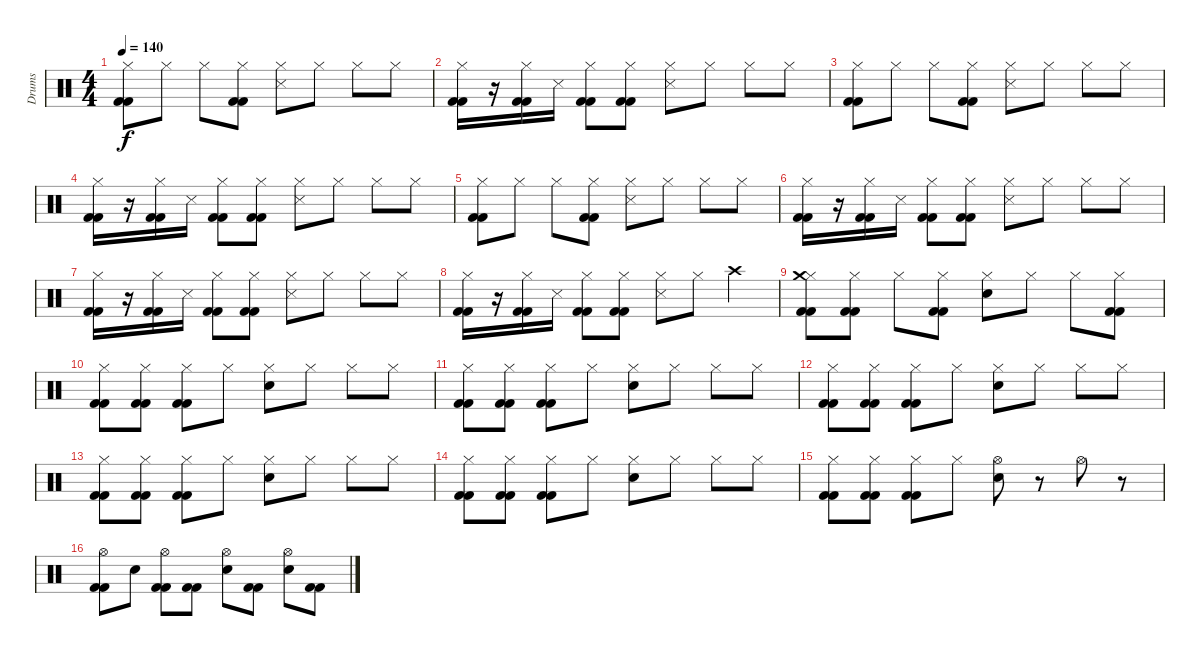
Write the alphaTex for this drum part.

\track ("Drums" "Drums") {instrument percussion}
\staff {score}
\articulation defaults
\ts (4 4)
\tempo 140
\clef neutral
\ks c
("Hi-Hat (closed)" "Kick (hit) 2" "Kick (hit) 2").8{dy f} "Hi-Hat (closed)".8 "Hi-Hat (closed)".8 ("Hi-Hat (closed)" "Kick (hit) 2" "Kick (hit) 2").8 ("Hi-Hat (closed)" "Snare (side stick) 3").8 "Hi-Hat (closed)".8 "Hi-Hat (closed)".8 "Hi-Hat (closed)".8 |
("Kick (hit) 2" "Hi-Hat (closed)" "Kick (hit) 2").16 r.16 ("Kick (hit) 2" "Kick (hit) 2" "Hi-Hat (closed)").16 "Snare (side stick) 3".16 ("Kick (hit) 2" "Kick (hit) 2" "Hi-Hat (closed)").8 ("Kick (hit) 2" "Kick (hit) 2" "Hi-Hat (closed)").8 ("Snare (side stick) 3" "Hi-Hat (closed)").8 "Hi-Hat (closed)".8 "Hi-Hat (closed)".8 "Hi-Hat (closed)".8 |
("Hi-Hat (closed)" "Kick (hit) 2" "Kick (hit) 2").8 "Hi-Hat (closed)".8 "Hi-Hat (closed)".8 ("Hi-Hat (closed)" "Kick (hit) 2" "Kick (hit) 2").8 ("Hi-Hat (closed)" "Snare (side stick) 3").8 "Hi-Hat (closed)".8 "Hi-Hat (closed)".8 "Hi-Hat (closed)".8 |
("Kick (hit) 2" "Hi-Hat (closed)" "Kick (hit) 2").16 r.16 ("Kick (hit) 2" "Kick (hit) 2" "Hi-Hat (closed)").16 "Snare (side stick) 3".16 ("Kick (hit) 2" "Kick (hit) 2" "Hi-Hat (closed)").8 ("Kick (hit) 2" "Kick (hit) 2" "Hi-Hat (closed)").8 ("Snare (side stick) 3" "Hi-Hat (closed)").8 "Hi-Hat (closed)".8 "Hi-Hat (closed)".8 "Hi-Hat (closed)".8 |
("Hi-Hat (closed)" "Kick (hit) 2" "Kick (hit) 2").8 "Hi-Hat (closed)".8 "Hi-Hat (closed)".8 ("Hi-Hat (closed)" "Kick (hit) 2" "Kick (hit) 2").8 ("Hi-Hat (closed)" "Snare (side stick) 3").8 "Hi-Hat (closed)".8 "Hi-Hat (closed)".8 "Hi-Hat (closed)".8 |
("Kick (hit) 2" "Hi-Hat (closed)" "Kick (hit) 2").16 r.16 ("Kick (hit) 2" "Kick (hit) 2" "Hi-Hat (closed)").16 "Snare (side stick) 3".16 ("Kick (hit) 2" "Kick (hit) 2" "Hi-Hat (closed)").8 ("Kick (hit) 2" "Kick (hit) 2" "Hi-Hat (closed)").8 ("Snare (side stick) 3" "Hi-Hat (closed)").8 "Hi-Hat (closed)".8 "Hi-Hat (closed)".8 "Hi-Hat (closed)".8 |
("Kick (hit) 2" "Hi-Hat (closed)" "Kick (hit) 2").16 r.16 ("Kick (hit) 2" "Kick (hit) 2" "Hi-Hat (closed)").16 "Snare (side stick) 3".16 ("Kick (hit) 2" "Kick (hit) 2" "Hi-Hat (closed)").8 ("Kick (hit) 2" "Kick (hit) 2" "Hi-Hat (closed)").8 ("Snare (side stick) 3" "Hi-Hat (closed)").8 "Hi-Hat (closed)".8 "Hi-Hat (closed)".8 "Hi-Hat (closed)".8 |
("Kick (hit) 2" "Hi-Hat (closed)" "Kick (hit) 2").16 r.16 ("Kick (hit) 2" "Kick (hit) 2" "Hi-Hat (closed)").16 "Snare (side stick) 3".16 ("Kick (hit) 2" "Kick (hit) 2" "Hi-Hat (closed)").8 ("Kick (hit) 2" "Kick (hit) 2" "Hi-Hat (closed)").8 ("Snare (side stick) 3" "Hi-Hat (closed)").8 "Hi-Hat (closed)".8 "Crash high (hit)".4 |
("Hi-Hat (closed)" "Kick (hit) 2" "Kick (hit) 2" "Crash medium (hit)").8 ("Hi-Hat (closed)" "Kick (hit) 2" "Kick (hit) 2").8 "Hi-Hat (closed)".8 ("Kick (hit) 2" "Hi-Hat (closed)" "Kick (hit) 2").8 ("Hi-Hat (closed)" "Snare (hit) 2").8 "Hi-Hat (closed)".8 "Hi-Hat (closed)".8 ("Kick (hit) 2" "Hi-Hat (closed)" "Kick (hit) 2").8 |
("Kick (hit) 2" "Hi-Hat (closed)" "Kick (hit) 2").8 ("Kick (hit) 2" "Hi-Hat (closed)" "Kick (hit) 2").8 ("Kick (hit) 2" "Hi-Hat (closed)" "Kick (hit) 2").8 "Hi-Hat (closed)".8 ("Snare (hit) 2" "Hi-Hat (closed)").8 "Hi-Hat (closed)".8 "Hi-Hat (closed)".8 "Hi-Hat (closed)".8 |
("Kick (hit) 2" "Hi-Hat (closed)" "Kick (hit) 2").8 ("Kick (hit) 2" "Hi-Hat (closed)" "Kick (hit) 2").8 ("Kick (hit) 2" "Hi-Hat (closed)" "Kick (hit) 2").8 "Hi-Hat (closed)".8 ("Snare (hit) 2" "Hi-Hat (closed)").8 "Hi-Hat (closed)".8 "Hi-Hat (closed)".8 "Hi-Hat (closed)".8 |
("Kick (hit) 2" "Hi-Hat (closed)" "Kick (hit) 2").8 ("Kick (hit) 2" "Hi-Hat (closed)" "Kick (hit) 2").8 ("Kick (hit) 2" "Hi-Hat (closed)" "Kick (hit) 2").8 "Hi-Hat (closed)".8 ("Snare (hit) 2" "Hi-Hat (closed)").8 "Hi-Hat (closed)".8 "Hi-Hat (closed)".8 "Hi-Hat (closed)".8 |
("Kick (hit) 2" "Hi-Hat (closed)" "Kick (hit) 2").8 ("Kick (hit) 2" "Hi-Hat (closed)" "Kick (hit) 2").8 ("Kick (hit) 2" "Hi-Hat (closed)" "Kick (hit) 2").8 "Hi-Hat (closed)".8 ("Snare (hit) 2" "Hi-Hat (closed)").8 "Hi-Hat (closed)".8 "Hi-Hat (closed)".8 "Hi-Hat (closed)".8 |
("Kick (hit) 2" "Hi-Hat (closed)" "Kick (hit) 2").8 ("Kick (hit) 2" "Hi-Hat (closed)" "Kick (hit) 2").8 ("Kick (hit) 2" "Hi-Hat (closed)" "Kick (hit) 2").8 "Hi-Hat (closed)".8 ("Snare (hit) 2" "Hi-Hat (closed)").8 "Hi-Hat (closed)".8 "Hi-Hat (closed)".8 "Hi-Hat (closed)".8 |
("Kick (hit) 2" "Hi-Hat (closed)" "Kick (hit) 2").8 ("Kick (hit) 2" "Hi-Hat (closed)" "Kick (hit) 2").8 ("Kick (hit) 2" "Hi-Hat (closed)" "Kick (hit) 2").8 "Hi-Hat (closed)".8 ("Snare (hit) 2" "Hi-Hat (open)").8 r.8 "Hi-Hat (open)".8 r.8 |
("Kick (hit) 2" "Hi-Hat (open)" "Kick (hit) 2").8 "Snare (hit) 2".8 ("Kick (hit) 2" "Kick (hit) 2" "Hi-Hat (open)").8 ("Kick (hit) 2" "Kick (hit) 2").8 ("Snare (hit) 2" "Hi-Hat (open)").8 ("Kick (hit) 2" "Kick (hit) 2").8 ("Snare (hit) 2" "Hi-Hat (open)").8 ("Kick (hit) 2" "Kick (hit) 2").8
